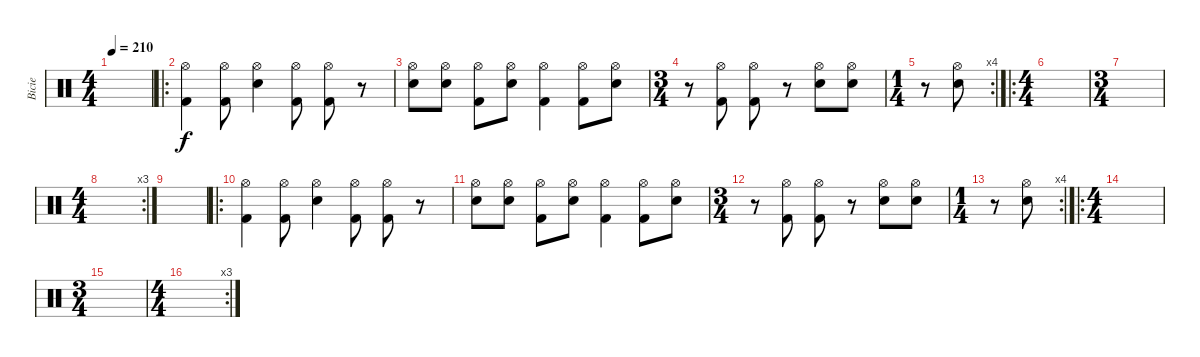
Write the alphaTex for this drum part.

\track ("Bicie" "Bicie") {instrument percussion}
\staff {score}
\articulation defaults
\ts (4 4)
\tempo 210
\clef neutral
\ks c
|
\ro
("Hi-Hat (open)" "Kick (hit) 2").4 ("Hi-Hat (open)" "Kick (hit) 2").8 ("Hi-Hat (open)" "Snare (hit) 2").4 ("Hi-Hat (open)" "Kick (hit) 2").8 ("Hi-Hat (open)" "Kick (hit) 2").8 r.8 |
("Hi-Hat (open)" "Snare (hit) 2").8 ("Hi-Hat (open)" "Snare (hit) 2").8 ("Hi-Hat (open)" "Kick (hit) 2").8 ("Hi-Hat (open)" "Snare (hit) 2").8 ("Hi-Hat (open)" "Kick (hit) 2").4 ("Hi-Hat (open)" "Kick (hit) 2").8 ("Hi-Hat (open)" "Snare (hit) 2").8 |
\ts (3 4)
r.8 ("Hi-Hat (open)" "Kick (hit) 2").8 ("Hi-Hat (open)" "Kick (hit) 2").8 r.8 ("Hi-Hat (open)" "Snare (hit) 2").8 ("Hi-Hat (open)" "Snare (hit) 2").8 |
\rc 4
\ts (1 4)
r.8 ("Hi-Hat (open)" "Snare (hit) 2").8 |
\ro
\ts (4 4)
|
\ts (3 4)
|
\rc 3
\ts (4 4)
|
|
\ro
("Hi-Hat (open)" "Kick (hit) 2").4 ("Hi-Hat (open)" "Kick (hit) 2").8 ("Hi-Hat (open)" "Snare (hit) 2").4 ("Hi-Hat (open)" "Kick (hit) 2").8 ("Hi-Hat (open)" "Kick (hit) 2").8 r.8 |
("Hi-Hat (open)" "Snare (hit) 2").8 ("Hi-Hat (open)" "Snare (hit) 2").8 ("Hi-Hat (open)" "Kick (hit) 2").8 ("Hi-Hat (open)" "Snare (hit) 2").8 ("Hi-Hat (open)" "Kick (hit) 2").4 ("Hi-Hat (open)" "Kick (hit) 2").8 ("Hi-Hat (open)" "Snare (hit) 2").8 |
\ts (3 4)
r.8 ("Hi-Hat (open)" "Kick (hit) 2").8 ("Hi-Hat (open)" "Kick (hit) 2").8 r.8 ("Hi-Hat (open)" "Snare (hit) 2").8 ("Hi-Hat (open)" "Snare (hit) 2").8 |
\rc 4
\ts (1 4)
r.8 ("Hi-Hat (open)" "Snare (hit) 2").8 |
\ro
\ts (4 4)
|
\ts (3 4)
|
\rc 3
\ts (4 4)
